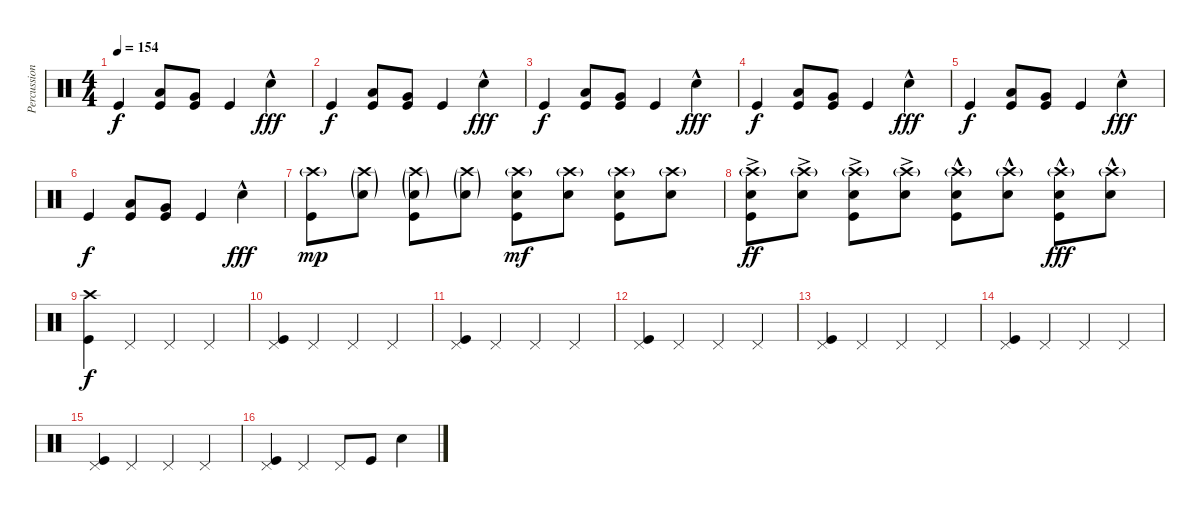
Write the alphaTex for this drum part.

\track ("Percussion" "Percussion") {instrument percussion}
\staff {score}
\articulation defaults
\ts (4 4)
\tempo 154
\clef neutral
\ks c "Kick (hit)".4{dy f}
("Kick (hit)" "Low Tom (hit)").8 ("Kick (hit)" "Very Low Tom (hit)").8 "Kick (hit)".4 "Electric Snare (hit)"{hac}.4{dy fff} |
"Kick (hit)".4{dy f} ("Kick (hit)" "Low Tom (hit)").8 ("Kick (hit)" "Very Low Tom (hit)").8 "Kick (hit)".4 "Electric Snare (hit)"{hac}.4{dy fff} |
"Kick (hit)".4{dy f} ("Kick (hit)" "Low Tom (hit)").8 ("Kick (hit)" "Very Low Tom (hit)").8 "Kick (hit)".4 "Electric Snare (hit)"{hac}.4{dy fff} |
"Kick (hit)".4{dy f} ("Kick (hit)" "Low Tom (hit)").8 ("Kick (hit)" "Very Low Tom (hit)").8 "Kick (hit)".4 "Electric Snare (hit)"{hac}.4{dy fff} |
"Kick (hit)".4{dy f} ("Kick (hit)" "Low Tom (hit)").8 ("Kick (hit)" "Very Low Tom (hit)").8 "Kick (hit)".4 "Electric Snare (hit)"{hac}.4{dy fff} |
"Kick (hit)".4{dy f} ("Kick (hit)" "Low Tom (hit)").8 ("Kick (hit)" "Very Low Tom (hit)").8 "Kick (hit)".4 "Electric Snare (hit)"{hac}.4{dy fff} |
("Kick (hit)" "Crash high (hit)"{g}).8{dy mp} ("Electric Snare (hit)"{g} "Crash high (hit)"{g}).8 ("Kick (hit)" "Electric Snare (hit)"{g} "Crash high (hit)"{g}).8 ("Snare (hit)"{g} "Crash high (hit)"{g}).8 ("Kick (hit)" "Electric Snare (hit)" "Crash high (hit)"{g}).8{dy mf} ("Electric Snare (hit)" "Crash high (hit)"{g}).8 ("Kick (hit)" "Electric Snare (hit)" "Crash high (hit)"{g}).8 ("Electric Snare (hit)" "Crash high (hit)"{g}).8 |
("Kick (hit)" "Electric Snare (hit)"{ac} "Crash high (hit)"{g}).8{dy ff} ("Electric Snare (hit)"{ac} "Crash high (hit)"{g}).8 ("Kick (hit)" "Electric Snare (hit)"{ac} "Crash high (hit)"{g}).8 ("Electric Snare (hit)"{ac} "Crash high (hit)"{g}).8 ("Kick (hit)" "Electric Snare (hit)"{hac} "Crash high (hit)"{g}).8 ("Electric Snare (hit)"{hac} "Crash high (hit)"{g}).8 ("Kick (hit)" "Electric Snare (hit)"{hac} "Crash high (hit)"{g}).8{dy fff} ("Electric Snare (hit)"{hac} "Crash high (hit)"{g}).8 |
("Crash high (hit)" "Kick (hit)").4{dy f} "Pedal Hi-Hat (hit)".4 "Pedal Hi-Hat (hit)".4 "Pedal Hi-Hat (hit)".4 |
("Pedal Hi-Hat (hit)" "Kick (hit)").4 "Pedal Hi-Hat (hit)".4 "Pedal Hi-Hat (hit)".4 "Pedal Hi-Hat (hit)".4 |
("Kick (hit)" "Pedal Hi-Hat (hit)").4 "Pedal Hi-Hat (hit)".4 "Pedal Hi-Hat (hit)".4 "Pedal Hi-Hat (hit)".4 |
("Kick (hit)" "Pedal Hi-Hat (hit)").4 "Pedal Hi-Hat (hit)".4 "Pedal Hi-Hat (hit)".4 "Pedal Hi-Hat (hit)".4 |
("Kick (hit)" "Pedal Hi-Hat (hit)").4 "Pedal Hi-Hat (hit)".4 "Pedal Hi-Hat (hit)".4 "Pedal Hi-Hat (hit)".4 |
("Kick (hit)" "Pedal Hi-Hat (hit)").4 "Pedal Hi-Hat (hit)".4 "Pedal Hi-Hat (hit)".4 "Pedal Hi-Hat (hit)".4 |
("Kick (hit)" "Pedal Hi-Hat (hit)").4 "Pedal Hi-Hat (hit)".4 "Pedal Hi-Hat (hit)".4 "Pedal Hi-Hat (hit)".4 |
("Kick (hit)" "Pedal Hi-Hat (hit)").4 "Pedal Hi-Hat (hit)".4 "Pedal Hi-Hat (hit)".8 "Kick (hit)".8 "Snare (hit) 2".4
